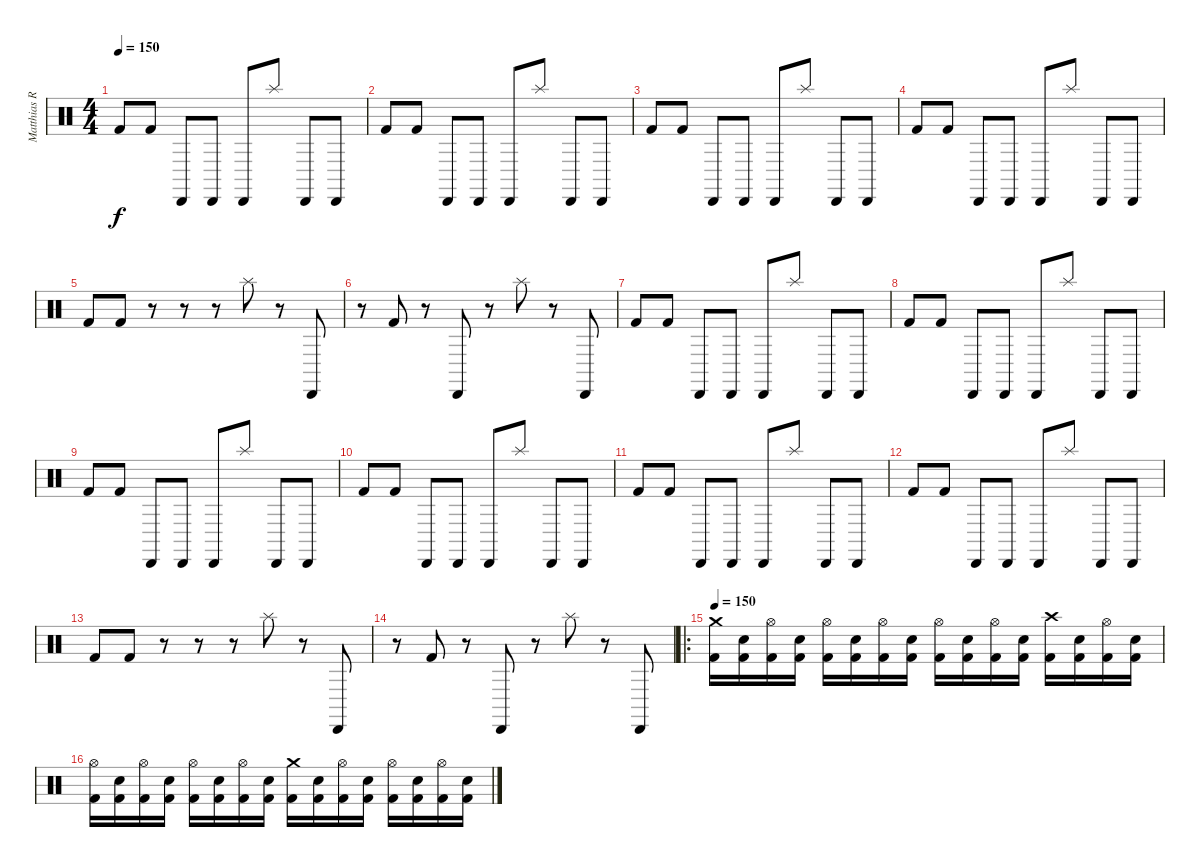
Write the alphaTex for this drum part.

\track ("Matthias Rodig" "Matthias R") {instrument percussion}
\staff {score}
\articulation defaults
\ts (4 4)
\tempo 150
\clef neutral
\ks c "Kick (hit) 2".8{dy f} "Kick (hit) 2".8 "Cabasa (hit)".8 "Cabasa (hit)".8 "Cabasa (hit)".8 "Splash (hit)".8 "Cabasa (hit)".8 "Cabasa (hit)".8
|
"Kick (hit) 2".8 "Kick (hit) 2".8 "Cabasa (hit)".8 "Cabasa (hit)".8 "Cabasa (hit)".8 "Splash (hit)".8 "Cabasa (hit)".8 "Cabasa (hit)".8 |
"Kick (hit) 2".8 "Kick (hit) 2".8 "Cabasa (hit)".8 "Cabasa (hit)".8 "Cabasa (hit)".8 "Splash (hit)".8 "Cabasa (hit)".8 "Cabasa (hit)".8 |
"Kick (hit) 2".8 "Kick (hit) 2".8 "Cabasa (hit)".8 "Cabasa (hit)".8 "Cabasa (hit)".8 "Splash (hit)".8 "Cabasa (hit)".8 "Cabasa (hit)".8 |
"Kick (hit) 2".8 "Kick (hit) 2".8 r.8 r.8 r.8 "Splash (hit)".8 r.8 "Cabasa (hit)".8 |
r.8 "Kick (hit) 2".8 r.8 "Cabasa (hit)".8 r.8 "Splash (hit)".8 r.8 "Cabasa (hit)".8 |
"Kick (hit) 2".8 "Kick (hit) 2".8 "Cabasa (hit)".8 "Cabasa (hit)".8 "Cabasa (hit)".8 "Splash (hit)".8 "Cabasa (hit)".8 "Cabasa (hit)".8 |
"Kick (hit) 2".8 "Kick (hit) 2".8 "Cabasa (hit)".8 "Cabasa (hit)".8 "Cabasa (hit)".8 "Splash (hit)".8 "Cabasa (hit)".8 "Cabasa (hit)".8 |
"Kick (hit) 2".8 "Kick (hit) 2".8 "Cabasa (hit)".8 "Cabasa (hit)".8 "Cabasa (hit)".8 "Splash (hit)".8 "Cabasa (hit)".8 "Cabasa (hit)".8 |
"Kick (hit) 2".8 "Kick (hit) 2".8 "Cabasa (hit)".8 "Cabasa (hit)".8 "Cabasa (hit)".8 "Splash (hit)".8 "Cabasa (hit)".8 "Cabasa (hit)".8 |
"Kick (hit) 2".8 "Kick (hit) 2".8 "Cabasa (hit)".8 "Cabasa (hit)".8 "Cabasa (hit)".8 "Splash (hit)".8 "Cabasa (hit)".8 "Cabasa (hit)".8 |
"Kick (hit) 2".8 "Kick (hit) 2".8 "Cabasa (hit)".8 "Cabasa (hit)".8 "Cabasa (hit)".8 "Splash (hit)".8 "Cabasa (hit)".8 "Cabasa (hit)".8 |
"Kick (hit) 2".8 "Kick (hit) 2".8 r.8 r.8 r.8 "Splash (hit)".8 r.8 "Cabasa (hit)".8 |
r.8 "Kick (hit) 2".8 r.8 "Cabasa (hit)".8 r.8 "Splash (hit)".8 r.8 "Cabasa (hit)".8 |
\ro
\tempo 150
("Kick (hit) 2" "Crash medium (hit)").16 ("Kick (hit) 2" "Snare (hit) 2").16 ("Kick (hit) 2" "Hi-Hat (open)").16 ("Kick (hit) 2" "Snare (hit) 2").16 ("Kick (hit) 2" "Hi-Hat (open)").16 ("Kick (hit) 2" "Snare (hit) 2").16 ("Kick (hit) 2" "Hi-Hat (open)").16 ("Kick (hit) 2" "Snare (hit) 2").16 ("Kick (hit) 2" "Hi-Hat (open)").16 ("Kick (hit) 2" "Snare (hit) 2").16 ("Kick (hit) 2" "Hi-Hat (open)").16 ("Kick (hit) 2" "Snare (hit) 2").16 ("Kick (hit) 2" "Crash high (hit)").16 ("Kick (hit) 2" "Snare (hit) 2").16 ("Kick (hit) 2" "Hi-Hat (open)").16 ("Kick (hit) 2" "Snare (hit) 2").16 |
("Kick (hit) 2" "Hi-Hat (open)").16 ("Kick (hit) 2" "Snare (hit) 2").16 ("Kick (hit) 2" "Hi-Hat (open)").16 ("Kick (hit) 2" "Snare (hit) 2").16 ("Kick (hit) 2" "Hi-Hat (open)").16 ("Kick (hit) 2" "Snare (hit) 2").16 ("Kick (hit) 2" "Hi-Hat (open)").16 ("Kick (hit) 2" "Snare (hit) 2").16 ("Kick (hit) 2" "Crash medium (hit)").16 ("Kick (hit) 2" "Snare (hit) 2").16 ("Kick (hit) 2" "Hi-Hat (open)").16 ("Kick (hit) 2" "Snare (hit) 2").16 ("Kick (hit) 2" "Hi-Hat (open)").16 ("Kick (hit) 2" "Snare (hit) 2").16 ("Kick (hit) 2" "Hi-Hat (open)").16 ("Kick (hit) 2" "Snare (hit) 2").16
